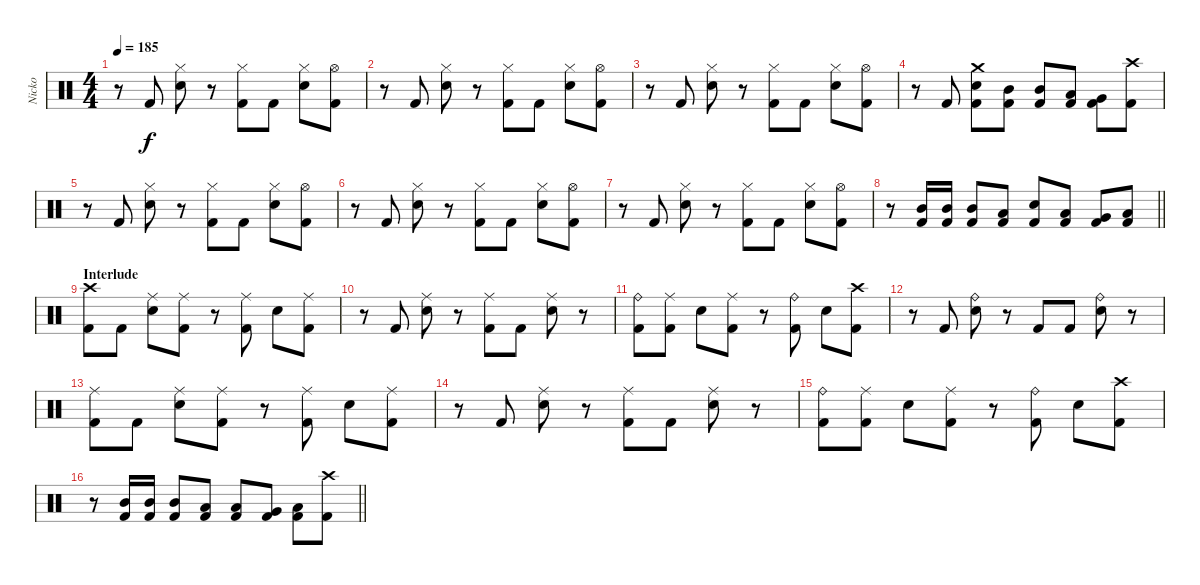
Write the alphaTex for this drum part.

\track ("Nicko" "Nicko") {instrument percussion}
\staff {score}
\articulation defaults
\ts (4 4)
\tempo 185
\clef neutral
\ks c
r.8{dy f} "Kick (hit) 2".8 ("Hi-Hat (closed)" "Snare (hit) 2").8 r.8 ("Hi-Hat (closed)" "Kick (hit) 2").8 "Kick (hit) 2".8 ("Hi-Hat (closed)" "Snare (hit) 2").8 ("Hi-Hat (open)" "Kick (hit) 2").8 |
r.8 "Kick (hit) 2".8 ("Hi-Hat (closed)" "Snare (hit) 2").8 r.8 ("Hi-Hat (closed)" "Kick (hit) 2").8 "Kick (hit) 2".8 ("Hi-Hat (closed)" "Snare (hit) 2").8 ("Hi-Hat (open)" "Kick (hit) 2").8 |
r.8 "Kick (hit) 2".8 ("Hi-Hat (closed)" "Snare (hit) 2").8 r.8 ("Hi-Hat (closed)" "Kick (hit) 2").8 "Kick (hit) 2".8 ("Hi-Hat (closed)" "Snare (hit) 2").8 ("Hi-Hat (open)" "Kick (hit) 2").8 |
r.8 "Kick (hit) 2".8 ("Crash medium (hit)" "Snare (hit) 2" "Kick (hit) 2").8 ("Mid Tom (hit)" "Kick (hit) 2").8 ("Mid Tom (hit)" "Kick (hit) 2").8 ("Low Tom (hit)" "Kick (hit) 2").8 ("Very Low Tom (hit)" "Kick (hit) 2").8 ("Crash high (hit)" "Kick (hit) 2").8 |
r.8 "Kick (hit) 2".8 ("Hi-Hat (closed)" "Snare (hit) 2").8 r.8 ("Hi-Hat (closed)" "Kick (hit) 2").8 "Kick (hit) 2".8 ("Hi-Hat (closed)" "Snare (hit) 2").8 ("Hi-Hat (open)" "Kick (hit) 2").8 |
r.8 "Kick (hit) 2".8 ("Hi-Hat (closed)" "Snare (hit) 2").8 r.8 ("Hi-Hat (closed)" "Kick (hit) 2").8 "Kick (hit) 2".8 ("Hi-Hat (closed)" "Snare (hit) 2").8 ("Hi-Hat (open)" "Kick (hit) 2").8 |
r.8 "Kick (hit) 2".8 ("Hi-Hat (closed)" "Snare (hit) 2").8 r.8 ("Hi-Hat (closed)" "Kick (hit) 2").8 "Kick (hit) 2".8 ("Hi-Hat (closed)" "Snare (hit) 2").8 ("Hi-Hat (open)" "Kick (hit) 2").8 |
\barLineRight lightlight
r.8 ("Mid Tom (hit)" "Kick (hit) 2").16 ("Mid Tom (hit)" "Kick (hit) 2").16 ("Mid Tom (hit)" "Kick (hit) 2").8 ("Low Tom (hit)" "Kick (hit) 2").8 ("Snare (hit) 2" "Kick (hit) 2").8 ("Low Tom (hit)" "Kick (hit) 2").8 ("Very Low Tom (hit)" "Kick (hit) 2").8 ("Low Floor Tom (hit)" "Kick (hit) 2").8 |
\section ("" "Interlude")
("Crash high (hit)" "Kick (hit) 2").8 "Kick (hit) 2".8 ("Ride (middle)" "Snare (hit) 2").8 ("Ride (middle)" "Kick (hit) 2").8 r.8 ("Ride (middle)" "Kick (hit) 2").8 "Snare (hit) 2".8 ("Ride (middle)" "Kick (hit) 2").8 |
r.8 "Kick (hit) 2".8 ("Ride (middle)" "Snare (hit) 2").8 r.8 ("Ride (middle)" "Kick (hit) 2").8 "Kick (hit) 2".8 ("Ride (middle)" "Snare (hit) 2").8 r.8 |
("Ride (bell)" "Kick (hit) 2").8 ("Ride (middle)" "Kick (hit) 2").8 "Snare (hit) 2".8 ("Ride (middle)" "Kick (hit) 2").8 r.8 ("Ride (bell)" "Kick (hit) 2").8 "Snare (hit) 2".8 ("Crash high (hit)" "Kick (hit) 2").8 |
r.8 "Kick (hit) 2".8 ("Ride (bell)" "Snare (hit) 2").8 r.8 "Kick (hit) 2".8 "Kick (hit) 2".8 ("Ride (bell)" "Snare (hit) 2").8 r.8 |
("Ride (middle)" "Kick (hit) 2").8 "Kick (hit) 2".8 ("Ride (middle)" "Snare (hit) 2").8 ("Ride (middle)" "Kick (hit) 2").8 r.8 ("Ride (middle)" "Kick (hit) 2").8 "Snare (hit) 2".8 ("Ride (middle)" "Kick (hit) 2").8 |
r.8 "Kick (hit) 2".8 ("Ride (middle)" "Snare (hit) 2").8 r.8 ("Ride (middle)" "Kick (hit) 2").8 "Kick (hit) 2".8 ("Ride (middle)" "Snare (hit) 2").8 r.8 |
("Ride (bell)" "Kick (hit) 2").8 ("Ride (middle)" "Kick (hit) 2").8 "Snare (hit) 2".8 ("Ride (middle)" "Kick (hit) 2").8 r.8 ("Ride (bell)" "Kick (hit) 2").8 "Snare (hit) 2".8 ("Crash high (hit)" "Kick (hit) 2").8 |
\barLineRight lightlight
r.8 ("Mid Tom (hit)" "Kick (hit) 2").16 ("Mid Tom (hit)" "Kick (hit) 2").16 ("Mid Tom (hit)" "Kick (hit) 2").8 ("Low Tom (hit)" "Kick (hit) 2").8 ("Low Tom (hit)" "Kick (hit) 2").8 ("Very Low Tom (hit)" "Kick (hit) 2").8 ("Low Floor Tom (hit)" "Kick (hit) 2").8 ("Crash high (hit)" "Kick (hit) 2").8
